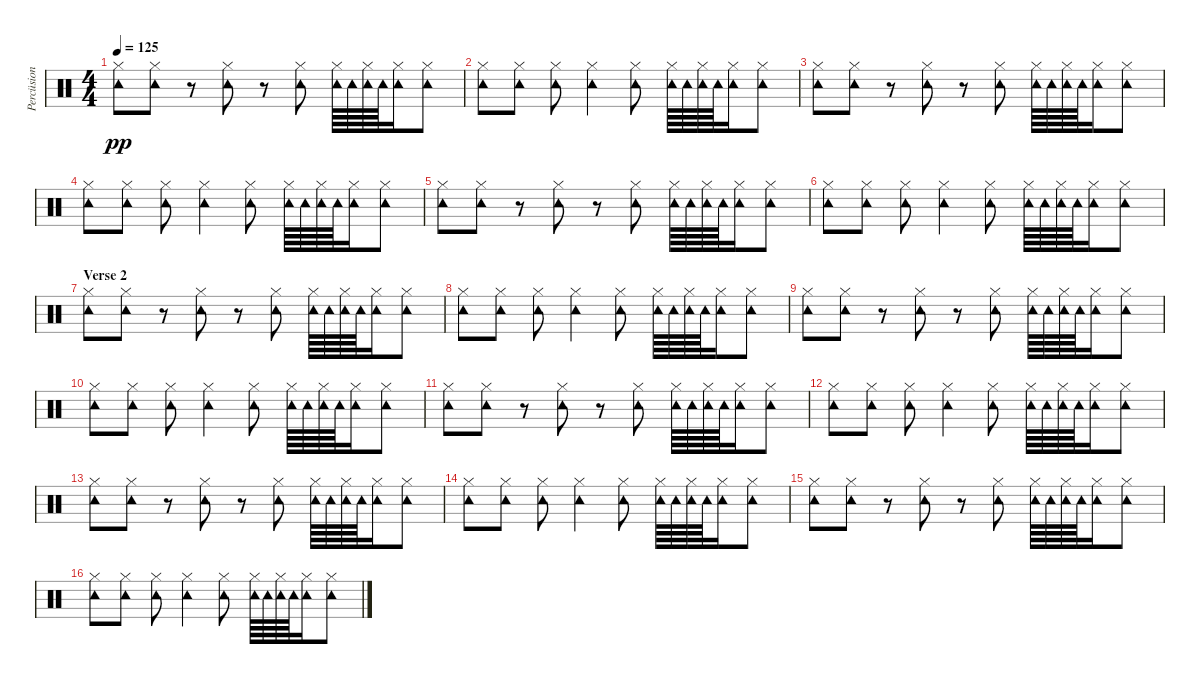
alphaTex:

\track ("Percüsion" "Percüsion") {instrument percussion}
\staff {score}
\articulation defaults
\ts (4 4)
\tempo 125
\clef neutral
\ks c
("Hi-Hat (closed)" "Tambourine (hit)").8{dy pp} ("Hi-Hat (closed)" "Tambourine (hit)").8 r.8 ("Hi-Hat (closed)" "Tambourine (hit)").8 r.8 ("Hi-Hat (closed)" "Tambourine (hit)").8 ("Hi-Hat (closed)" "Tambourine (hit)").64 "Tambourine (hit)".64 ("Hi-Hat (closed)" "Tambourine (hit)").64 "Tambourine (hit)".64 ("Hi-Hat (closed)" "Tambourine (hit)").16 ("Hi-Hat (closed)" "Tambourine (hit)").8 |
("Hi-Hat (closed)" "Tambourine (hit)").8 ("Hi-Hat (closed)" "Tambourine (hit)").8 ("Hi-Hat (closed)" "Tambourine (hit)").8 ("Hi-Hat (closed)" "Tambourine (hit)").4 ("Hi-Hat (closed)" "Tambourine (hit)").8 ("Hi-Hat (closed)" "Tambourine (hit)").64 "Tambourine (hit)".64 ("Hi-Hat (closed)" "Tambourine (hit)").64 "Tambourine (hit)".64 ("Hi-Hat (closed)" "Tambourine (hit)").16 ("Hi-Hat (closed)" "Tambourine (hit)").8 |
("Hi-Hat (closed)" "Tambourine (hit)").8 ("Hi-Hat (closed)" "Tambourine (hit)").8 r.8 ("Hi-Hat (closed)" "Tambourine (hit)").8 r.8 ("Hi-Hat (closed)" "Tambourine (hit)").8 ("Hi-Hat (closed)" "Tambourine (hit)").64 "Tambourine (hit)".64 ("Hi-Hat (closed)" "Tambourine (hit)").64 "Tambourine (hit)".64 ("Hi-Hat (closed)" "Tambourine (hit)").16 ("Hi-Hat (closed)" "Tambourine (hit)").8 |
("Hi-Hat (closed)" "Tambourine (hit)").8 ("Hi-Hat (closed)" "Tambourine (hit)").8 ("Hi-Hat (closed)" "Tambourine (hit)").8 ("Hi-Hat (closed)" "Tambourine (hit)").4 ("Hi-Hat (closed)" "Tambourine (hit)").8 ("Hi-Hat (closed)" "Tambourine (hit)").64 "Tambourine (hit)".64 ("Hi-Hat (closed)" "Tambourine (hit)").64 "Tambourine (hit)".64 ("Hi-Hat (closed)" "Tambourine (hit)").16 ("Hi-Hat (closed)" "Tambourine (hit)").8 |
("Hi-Hat (closed)" "Tambourine (hit)").8 ("Hi-Hat (closed)" "Tambourine (hit)").8 r.8 ("Hi-Hat (closed)" "Tambourine (hit)").8 r.8 ("Hi-Hat (closed)" "Tambourine (hit)").8 ("Hi-Hat (closed)" "Tambourine (hit)").64 "Tambourine (hit)".64 ("Hi-Hat (closed)" "Tambourine (hit)").64 "Tambourine (hit)".64 ("Hi-Hat (closed)" "Tambourine (hit)").16 ("Hi-Hat (closed)" "Tambourine (hit)").8 |
("Hi-Hat (closed)" "Tambourine (hit)").8 ("Hi-Hat (closed)" "Tambourine (hit)").8 ("Hi-Hat (closed)" "Tambourine (hit)").8 ("Hi-Hat (closed)" "Tambourine (hit)").4 ("Hi-Hat (closed)" "Tambourine (hit)").8 ("Hi-Hat (closed)" "Tambourine (hit)").64 "Tambourine (hit)".64 ("Hi-Hat (closed)" "Tambourine (hit)").64 "Tambourine (hit)".64 ("Hi-Hat (closed)" "Tambourine (hit)").16 ("Hi-Hat (closed)" "Tambourine (hit)").8 |
\section ("" "Verse 2")
("Hi-Hat (closed)" "Tambourine (hit)").8 ("Hi-Hat (closed)" "Tambourine (hit)").8 r.8 ("Hi-Hat (closed)" "Tambourine (hit)").8 r.8 ("Hi-Hat (closed)" "Tambourine (hit)").8 ("Hi-Hat (closed)" "Tambourine (hit)").64 "Tambourine (hit)".64 ("Hi-Hat (closed)" "Tambourine (hit)").64 "Tambourine (hit)".64 ("Hi-Hat (closed)" "Tambourine (hit)").16 ("Hi-Hat (closed)" "Tambourine (hit)").8 |
("Hi-Hat (closed)" "Tambourine (hit)").8 ("Hi-Hat (closed)" "Tambourine (hit)").8 ("Hi-Hat (closed)" "Tambourine (hit)").8 ("Hi-Hat (closed)" "Tambourine (hit)").4 ("Hi-Hat (closed)" "Tambourine (hit)").8 ("Hi-Hat (closed)" "Tambourine (hit)").64 "Tambourine (hit)".64 ("Hi-Hat (closed)" "Tambourine (hit)").64 "Tambourine (hit)".64 ("Hi-Hat (closed)" "Tambourine (hit)").16 ("Hi-Hat (closed)" "Tambourine (hit)").8 |
("Hi-Hat (closed)" "Tambourine (hit)").8 ("Hi-Hat (closed)" "Tambourine (hit)").8 r.8 ("Hi-Hat (closed)" "Tambourine (hit)").8 r.8 ("Hi-Hat (closed)" "Tambourine (hit)").8 ("Hi-Hat (closed)" "Tambourine (hit)").64 "Tambourine (hit)".64 ("Hi-Hat (closed)" "Tambourine (hit)").64 "Tambourine (hit)".64 ("Hi-Hat (closed)" "Tambourine (hit)").16 ("Hi-Hat (closed)" "Tambourine (hit)").8 |
("Hi-Hat (closed)" "Tambourine (hit)").8 ("Hi-Hat (closed)" "Tambourine (hit)").8 ("Hi-Hat (closed)" "Tambourine (hit)").8 ("Hi-Hat (closed)" "Tambourine (hit)").4 ("Hi-Hat (closed)" "Tambourine (hit)").8 ("Hi-Hat (closed)" "Tambourine (hit)").64 "Tambourine (hit)".64 ("Hi-Hat (closed)" "Tambourine (hit)").64 "Tambourine (hit)".64 ("Hi-Hat (closed)" "Tambourine (hit)").16 ("Hi-Hat (closed)" "Tambourine (hit)").8 |
("Hi-Hat (closed)" "Tambourine (hit)").8 ("Hi-Hat (closed)" "Tambourine (hit)").8 r.8 ("Hi-Hat (closed)" "Tambourine (hit)").8 r.8 ("Hi-Hat (closed)" "Tambourine (hit)").8 ("Hi-Hat (closed)" "Tambourine (hit)").64 "Tambourine (hit)".64 ("Hi-Hat (closed)" "Tambourine (hit)").64 "Tambourine (hit)".64 ("Hi-Hat (closed)" "Tambourine (hit)").16 ("Hi-Hat (closed)" "Tambourine (hit)").8 |
("Hi-Hat (closed)" "Tambourine (hit)").8 ("Hi-Hat (closed)" "Tambourine (hit)").8 ("Hi-Hat (closed)" "Tambourine (hit)").8 ("Hi-Hat (closed)" "Tambourine (hit)").4 ("Hi-Hat (closed)" "Tambourine (hit)").8 ("Hi-Hat (closed)" "Tambourine (hit)").64 "Tambourine (hit)".64 ("Hi-Hat (closed)" "Tambourine (hit)").64 "Tambourine (hit)".64 ("Hi-Hat (closed)" "Tambourine (hit)").16 ("Hi-Hat (closed)" "Tambourine (hit)").8 |
("Hi-Hat (closed)" "Tambourine (hit)").8 ("Hi-Hat (closed)" "Tambourine (hit)").8 r.8 ("Hi-Hat (closed)" "Tambourine (hit)").8 r.8 ("Hi-Hat (closed)" "Tambourine (hit)").8 ("Hi-Hat (closed)" "Tambourine (hit)").64 "Tambourine (hit)".64 ("Hi-Hat (closed)" "Tambourine (hit)").64 "Tambourine (hit)".64 ("Hi-Hat (closed)" "Tambourine (hit)").16 ("Hi-Hat (closed)" "Tambourine (hit)").8 |
("Hi-Hat (closed)" "Tambourine (hit)").8 ("Hi-Hat (closed)" "Tambourine (hit)").8 ("Hi-Hat (closed)" "Tambourine (hit)").8 ("Hi-Hat (closed)" "Tambourine (hit)").4 ("Hi-Hat (closed)" "Tambourine (hit)").8 ("Hi-Hat (closed)" "Tambourine (hit)").64 "Tambourine (hit)".64 ("Hi-Hat (closed)" "Tambourine (hit)").64 "Tambourine (hit)".64 ("Hi-Hat (closed)" "Tambourine (hit)").16 ("Hi-Hat (closed)" "Tambourine (hit)").8 |
("Hi-Hat (closed)" "Tambourine (hit)").8 ("Hi-Hat (closed)" "Tambourine (hit)").8 r.8 ("Hi-Hat (closed)" "Tambourine (hit)").8 r.8 ("Hi-Hat (closed)" "Tambourine (hit)").8 ("Hi-Hat (closed)" "Tambourine (hit)").64 "Tambourine (hit)".64 ("Hi-Hat (closed)" "Tambourine (hit)").64 "Tambourine (hit)".64 ("Hi-Hat (closed)" "Tambourine (hit)").16 ("Hi-Hat (closed)" "Tambourine (hit)").8 |
("Hi-Hat (closed)" "Tambourine (hit)").8 ("Hi-Hat (closed)" "Tambourine (hit)").8 ("Hi-Hat (closed)" "Tambourine (hit)").8 ("Hi-Hat (closed)" "Tambourine (hit)").4 ("Hi-Hat (closed)" "Tambourine (hit)").8 ("Hi-Hat (closed)" "Tambourine (hit)").64 "Tambourine (hit)".64 ("Hi-Hat (closed)" "Tambourine (hit)").64 "Tambourine (hit)".64 ("Hi-Hat (closed)" "Tambourine (hit)").16 ("Hi-Hat (closed)" "Tambourine (hit)").8
